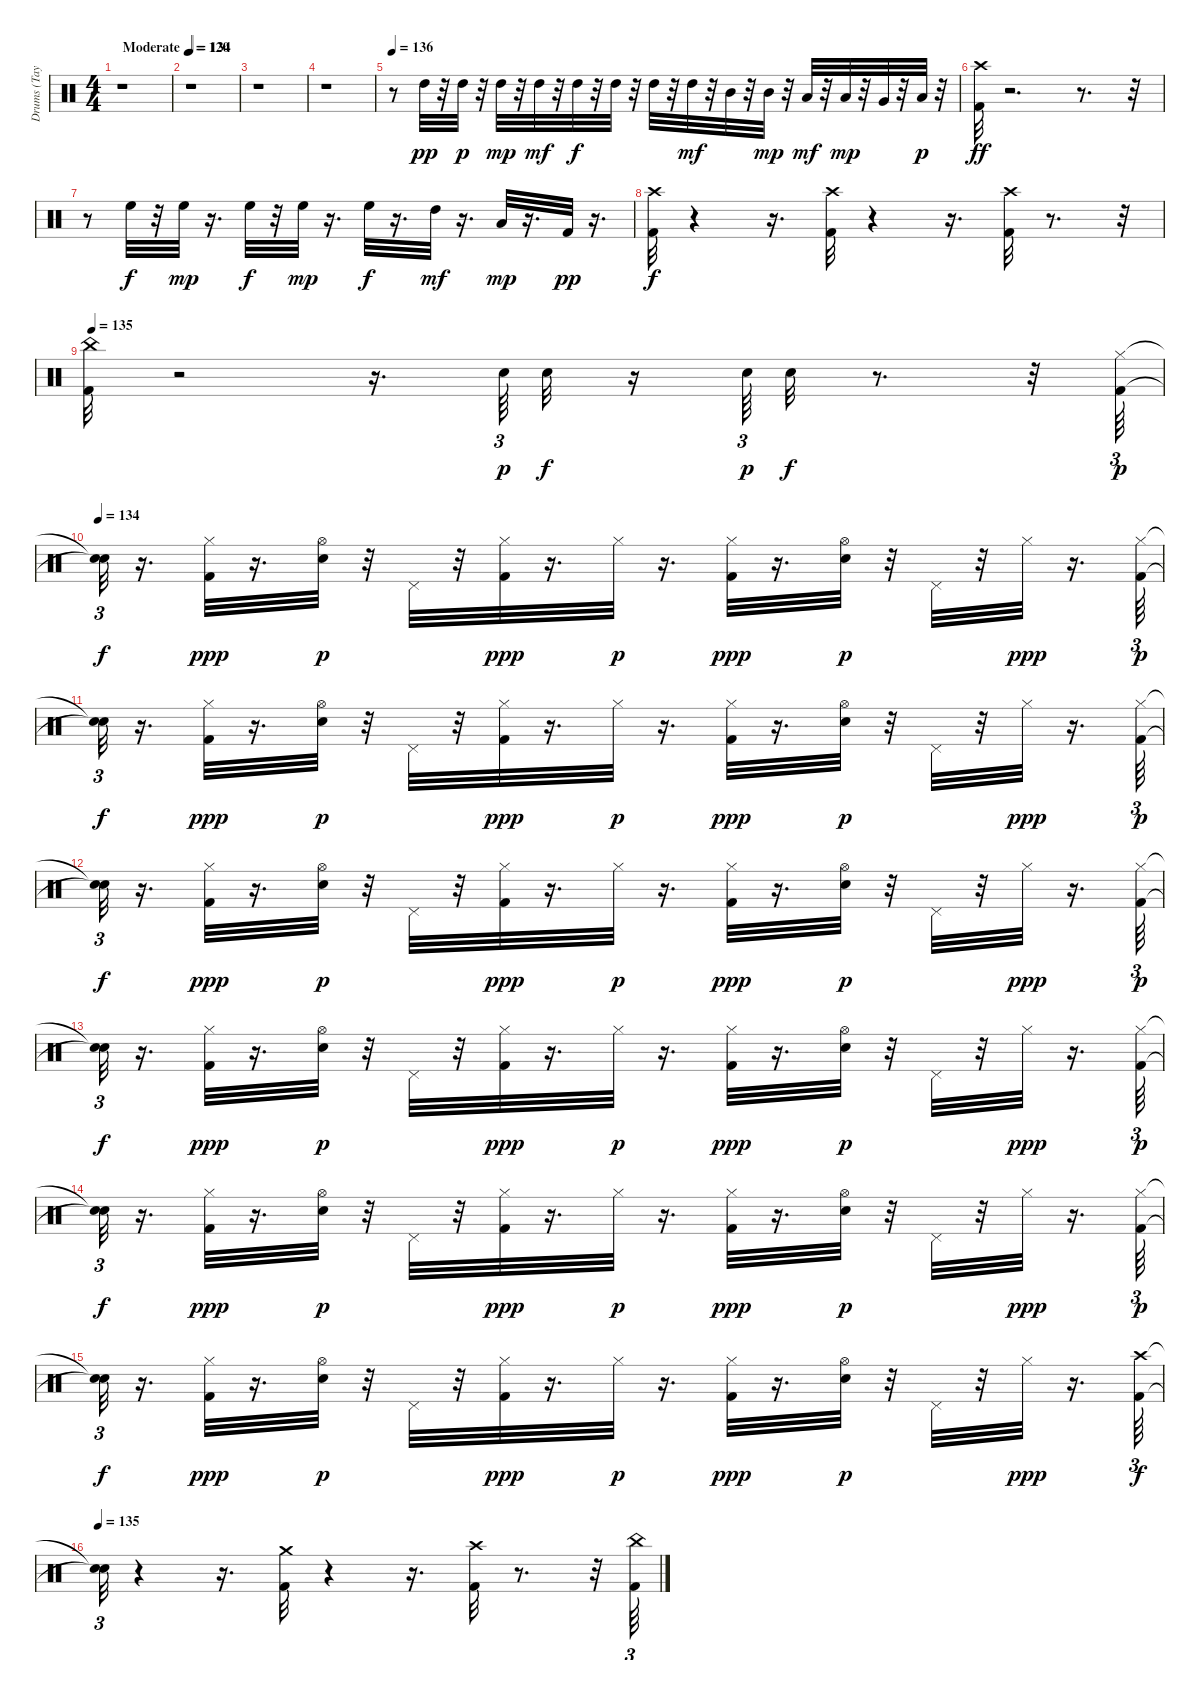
\track ("Drums (Taylor)" "Drums (Tay") {instrument percussion}
\staff {score}
\articulation defaults
\ts (4 4)
\tempo (120 "Moderate")
\clef neutral
\ks c
r.1{dy pp} |
\tempo 134
r.1 |
r.1 |
r.1 |
\tempo 136
r.8 "High Tom (hit)".32 r.32 "High Tom (hit)".32{dy p} r.32 "High Tom (hit)".32{dy mp} r.32 "High Tom (hit)".32{dy mf} r.32 "High Tom (hit)".32{dy f} r.32 "High Tom (hit)".32 r.32 "High Tom (hit)".32 r.32 "High Tom (hit)".32{dy mf} r.32 "Mid Tom (hit)".32 r.32 "Mid Tom (hit)".32{dy mp} r.32 "Low Tom (hit)".32{dy mf} r.32 "Low Tom (hit)".32{dy mp} r.32 "Very Low Tom (hit)".32 r.32 "Low Floor Tom (hit)".32{dy p} r.32 |
("Kick (hit) 2" "Crash high (hit)").32{dy ff} r.2{d} r.8{d} r.32 |
r.8 "High Floor Tom (hit)".32{dy f} r.32 "High Floor Tom (hit)".32{dy mp} r.16{d} "High Floor Tom (hit)".32{dy f} r.32 "High Floor Tom (hit)".32{dy mp} r.16{d} "High Floor Tom (hit)".32{dy f} r.16{d} "High Tom (hit)".32{dy mf} r.16{d} "Low Tom (hit)".32{dy mp} r.16{d} "Kick (hit) 2".32{dy pp} r.16{d} |
("Crash high (hit)" "Kick (hit) 2").32{dy f} r.4 r.16{d} ("Kick (hit) 2" "Crash high (hit)").32 r.4 r.16{d} ("Crash high (hit)" "Kick (hit) 2").32 r.8{d} r.32 |
\tempo 135
("Kick (hit) 2" "China (hit)").32 r.2 r.16{d} "Electric Snare (hit)".64{tu (3 2) dy p} "Snare (hit) 2".32{dy f} r.16 "Electric Snare (hit)".64{tu (3 2) dy p} "Snare (hit) 2".32{dy f} r.8{d} r.32 ("Kick (hit) 2" "Hi-Hat (closed)").64{tu (3 2) dy p} |
\tempo 134
("Snare (hit)"{t} "Snare (hit)"{t}).32{tu (3 2) dy f} r.16{d} ("Kick (hit) 2" "Hi-Hat (closed)").32{dy ppp} r.16{d} ("Snare (hit) 2" "Hi-Hat (open)").32{dy p} r.32 "Pedal Hi-Hat (hit)".32 r.32 ("Kick (hit) 2" "Hi-Hat (closed)").32{dy ppp} r.16{d} "Hi-Hat (closed)".32{dy p} r.16{d} ("Kick (hit) 2" "Hi-Hat (closed)").32{dy ppp} r.16{d} ("Snare (hit) 2" "Hi-Hat (open)").32{dy p} r.32 "Pedal Hi-Hat (hit)".32 r.32 "Hi-Hat (closed)".32{dy ppp} r.16{d} ("Kick (hit) 2" "Hi-Hat (closed)").64{tu (3 2) dy p} |
("Snare (hit)"{t} "Snare (hit)"{t}).32{tu (3 2) dy f} r.16{d} ("Kick (hit) 2" "Hi-Hat (closed)").32{dy ppp} r.16{d} ("Snare (hit) 2" "Hi-Hat (open)").32{dy p} r.32 "Pedal Hi-Hat (hit)".32 r.32 ("Kick (hit) 2" "Hi-Hat (closed)").32{dy ppp} r.16{d} "Hi-Hat (closed)".32{dy p} r.16{d} ("Kick (hit) 2" "Hi-Hat (closed)").32{dy ppp} r.16{d} ("Snare (hit) 2" "Hi-Hat (open)").32{dy p} r.32 "Pedal Hi-Hat (hit)".32 r.32 "Hi-Hat (closed)".32{dy ppp} r.16{d} ("Kick (hit) 2" "Hi-Hat (closed)").64{tu (3 2) dy p} |
("Snare (hit)"{t} "Snare (hit)"{t}).32{tu (3 2) dy f} r.16{d} ("Kick (hit) 2" "Hi-Hat (closed)").32{dy ppp} r.16{d} ("Snare (hit) 2" "Hi-Hat (open)").32{dy p} r.32 "Pedal Hi-Hat (hit)".32 r.32 ("Kick (hit) 2" "Hi-Hat (closed)").32{dy ppp} r.16{d} "Hi-Hat (closed)".32{dy p} r.16{d} ("Kick (hit) 2" "Hi-Hat (closed)").32{dy ppp} r.16{d} ("Snare (hit) 2" "Hi-Hat (open)").32{dy p} r.32 "Pedal Hi-Hat (hit)".32 r.32 "Hi-Hat (closed)".32{dy ppp} r.16{d} ("Kick (hit) 2" "Hi-Hat (closed)").64{tu (3 2) dy p} |
("Snare (hit)"{t} "Snare (hit)"{t}).32{tu (3 2) dy f} r.16{d} ("Kick (hit) 2" "Hi-Hat (closed)").32{dy ppp} r.16{d} ("Snare (hit) 2" "Hi-Hat (open)").32{dy p} r.32 "Pedal Hi-Hat (hit)".32 r.32 ("Kick (hit) 2" "Hi-Hat (closed)").32{dy ppp} r.16{d} "Hi-Hat (closed)".32{dy p} r.16{d} ("Kick (hit) 2" "Hi-Hat (closed)").32{dy ppp} r.16{d} ("Snare (hit) 2" "Hi-Hat (open)").32{dy p} r.32 "Pedal Hi-Hat (hit)".32 r.32 "Hi-Hat (closed)".32{dy ppp} r.16{d} ("Kick (hit) 2" "Hi-Hat (closed)").64{tu (3 2) dy p} |
("Snare (hit)"{t} "Snare (hit)"{t}).32{tu (3 2) dy f} r.16{d} ("Kick (hit) 2" "Hi-Hat (closed)").32{dy ppp} r.16{d} ("Snare (hit) 2" "Hi-Hat (open)").32{dy p} r.32 "Pedal Hi-Hat (hit)".32 r.32 ("Kick (hit) 2" "Hi-Hat (closed)").32{dy ppp} r.16{d} "Hi-Hat (closed)".32{dy p} r.16{d} ("Kick (hit) 2" "Hi-Hat (closed)").32{dy ppp} r.16{d} ("Snare (hit) 2" "Hi-Hat (open)").32{dy p} r.32 "Pedal Hi-Hat (hit)".32 r.32 "Hi-Hat (closed)".32{dy ppp} r.16{d} ("Kick (hit) 2" "Hi-Hat (closed)").64{tu (3 2) dy p} |
("Snare (hit)"{t} "Snare (hit)"{t}).32{tu (3 2) dy f} r.16{d} ("Kick (hit) 2" "Hi-Hat (closed)").32{dy ppp} r.16{d} ("Snare (hit) 2" "Hi-Hat (open)").32{dy p} r.32 "Pedal Hi-Hat (hit)".32 r.32 ("Kick (hit) 2" "Hi-Hat (closed)").32{dy ppp} r.16{d} "Hi-Hat (closed)".32{dy p} r.16{d} ("Kick (hit) 2" "Hi-Hat (closed)").32{dy ppp} r.16{d} ("Snare (hit) 2" "Hi-Hat (open)").32{dy p} r.32 "Pedal Hi-Hat (hit)".32 r.32 "Hi-Hat (closed)".32{dy ppp} r.16{d} ("Crash high (hit)" "Kick (hit) 2").64{tu (3 2) dy f} |
\tempo 135
("Snare (hit)"{t} "Snare (hit)"{t}).32{tu (3 2)} r.4 r.16{d} ("Kick (hit) 2" "Crash medium (hit)").32 r.4 r.16{d} ("Crash high (hit)" "Kick (hit) 2").32 r.8{d} r.32 ("Kick (hit) 2" "China (hit)").64{tu (3 2)}
